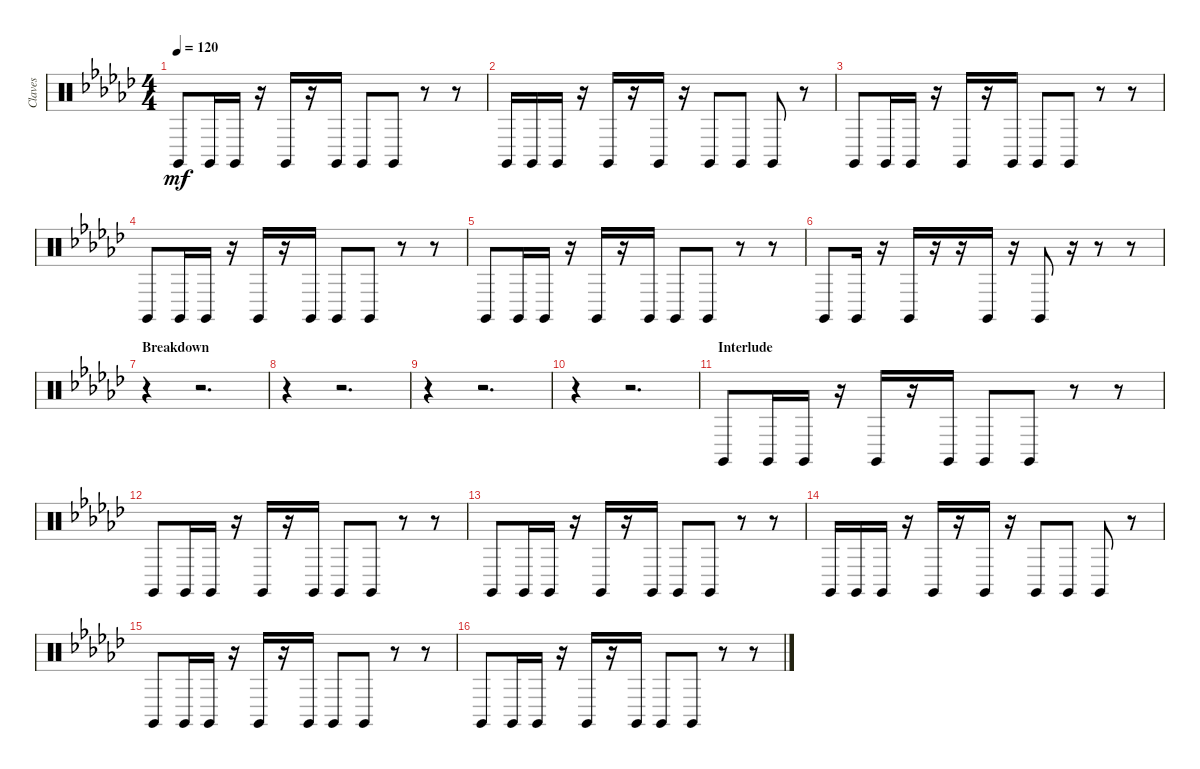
\track ("Claves" "Claves") {instrument percussion}
\staff {score}
\articulation defaults
\ts (4 4)
\tempo 120
\clef neutral
\ks ebminor "Claves (hit)".8{dy mf} "Claves (hit)".16 "Claves (hit)".16
r.16 "Claves (hit)".16 r.16 "Claves (hit)".16 "Claves (hit)".8 "Claves (hit)".8 r.8 r.8 |
"Claves (hit)".16 "Claves (hit)".16 "Claves (hit)".16 r.16 "Claves (hit)".16 r.16 "Claves (hit)".16 r.16 "Claves (hit)".8 "Claves (hit)".8 "Claves (hit)".8 r.8 |
"Claves (hit)".8 "Claves (hit)".16 "Claves (hit)".16 r.16 "Claves (hit)".16 r.16 "Claves (hit)".16 "Claves (hit)".8 "Claves (hit)".8 r.8 r.8 |
"Claves (hit)".8 "Claves (hit)".16 "Claves (hit)".16 r.16 "Claves (hit)".16 r.16 "Claves (hit)".16 "Claves (hit)".8 "Claves (hit)".8 r.8 r.8 |
"Claves (hit)".8 "Claves (hit)".16 "Claves (hit)".16 r.16 "Claves (hit)".16 r.16 "Claves (hit)".16 "Claves (hit)".8 "Claves (hit)".8 r.8 r.8 |
"Claves (hit)".8 "Claves (hit)".16 r.16 "Claves (hit)".16 r.16 r.16 "Claves (hit)".16 r.16 "Claves (hit)".8 r.16 r.8 r.8 |
\section ("" "Breakdown")
r.4 r.2{d} |
r.4 r.2{d} |
r.4 r.2{d} |
r.4 r.2{d} |
\section ("" "Interlude")
"Claves (hit)".8 "Claves (hit)".16 "Claves (hit)".16 r.16 "Claves (hit)".16 r.16 "Claves (hit)".16 "Claves (hit)".8 "Claves (hit)".8 r.8 r.8 |
"Claves (hit)".8 "Claves (hit)".16 "Claves (hit)".16 r.16 "Claves (hit)".16 r.16 "Claves (hit)".16 "Claves (hit)".8 "Claves (hit)".8 r.8 r.8 |
"Claves (hit)".8 "Claves (hit)".16 "Claves (hit)".16 r.16 "Claves (hit)".16 r.16 "Claves (hit)".16 "Claves (hit)".8 "Claves (hit)".8 r.8 r.8 |
"Claves (hit)".16 "Claves (hit)".16 "Claves (hit)".16 r.16 "Claves (hit)".16 r.16 "Claves (hit)".16 r.16 "Claves (hit)".8 "Claves (hit)".8 "Claves (hit)".8 r.8 |
"Claves (hit)".8 "Claves (hit)".16 "Claves (hit)".16 r.16 "Claves (hit)".16 r.16 "Claves (hit)".16 "Claves (hit)".8 "Claves (hit)".8 r.8 r.8 |
"Claves (hit)".8 "Claves (hit)".16 "Claves (hit)".16 r.16 "Claves (hit)".16 r.16 "Claves (hit)".16 "Claves (hit)".8 "Claves (hit)".8 r.8 r.8
